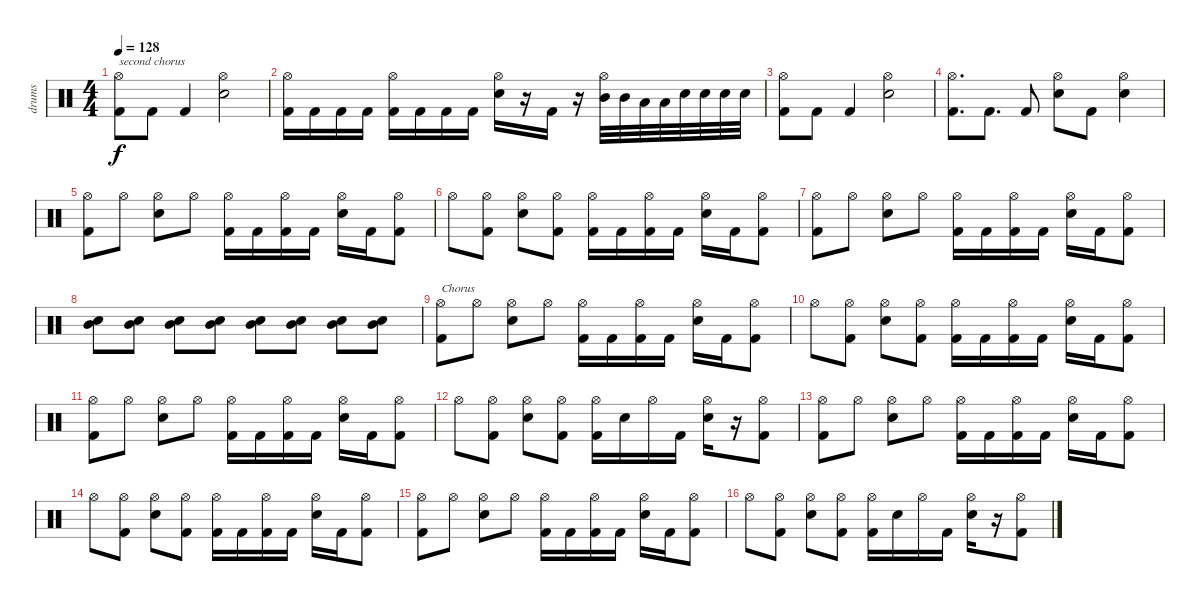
\track ("drums" "drums") {instrument percussion}
\staff {score}
\articulation defaults
\ts (4 4)
\tempo 128
\clef neutral
\ks c
("Hi-Hat (open)" "Kick (hit) 2").8{txt "second chorus" dy f} "Kick (hit) 2".8 "Kick (hit) 2".4 ("Hi-Hat (open)" "Snare (hit) 2").2 |
("Hi-Hat (open)" "Kick (hit) 2").16 "Kick (hit) 2".16 "Kick (hit) 2".16 "Kick (hit) 2".16 ("Hi-Hat (open)" "Kick (hit) 2").16 "Kick (hit) 2".16 "Kick (hit) 2".16 "Kick (hit) 2".16 ("Hi-Hat (open)" "Snare (hit) 2").16 r.16 "Kick (hit) 2".16 r.16 ("Hi-Hat (open)" "Mid Tom (hit)").32 "Mid Tom (hit)".32 "Low Tom (hit)".32 "Low Tom (hit)".32 "Snare (hit) 2".32 "Snare (hit) 2".32 "Snare (hit) 2".32 "Snare (hit) 2".32 |
("Hi-Hat (open)" "Kick (hit) 2").8 "Kick (hit) 2".8 "Kick (hit) 2".4 ("Hi-Hat (open)" "Snare (hit) 2").2 |
("Hi-Hat (open)" "Kick (hit) 2").8{d} "Kick (hit) 2".8{d} "Kick (hit) 2".8 ("Hi-Hat (open)" "Snare (hit) 2").8 "Kick (hit) 2".8 ("Hi-Hat (open)" "Snare (hit) 2").4 |
("Hi-Hat (open)" "Kick (hit) 2").8 "Hi-Hat (open)".8 ("Hi-Hat (open)" "Snare (hit) 2").8 "Hi-Hat (open)".8 ("Hi-Hat (open)" "Kick (hit) 2").16 "Kick (hit) 2".16 ("Hi-Hat (open)" "Kick (hit) 2").16 "Kick (hit) 2".16 ("Hi-Hat (open)" "Snare (hit) 2").16 "Kick (hit) 2".16 ("Hi-Hat (open)" "Kick (hit) 2").8 |
"Hi-Hat (open)".8 ("Hi-Hat (open)" "Kick (hit) 2").8 ("Hi-Hat (open)" "Snare (hit) 2").8 ("Hi-Hat (open)" "Kick (hit) 2").8 ("Hi-Hat (open)" "Kick (hit) 2").16 "Kick (hit) 2".16 ("Hi-Hat (open)" "Kick (hit) 2").16 "Kick (hit) 2".16 ("Hi-Hat (open)" "Snare (hit) 2").16 "Kick (hit) 2".16 ("Hi-Hat (open)" "Kick (hit) 2").8 |
("Hi-Hat (open)" "Kick (hit) 2").8 "Hi-Hat (open)".8 ("Hi-Hat (open)" "Snare (hit) 2").8 "Hi-Hat (open)".8 ("Hi-Hat (open)" "Kick (hit) 2").16 "Kick (hit) 2".16 ("Hi-Hat (open)" "Kick (hit) 2").16 "Kick (hit) 2".16 ("Hi-Hat (open)" "Snare (hit) 2").16 "Kick (hit) 2".16 ("Hi-Hat (open)" "Kick (hit) 2").8 |
("Mid Tom (hit)" "Snare (hit) 2").8 ("Mid Tom (hit)" "Snare (hit) 2").8 ("Mid Tom (hit)" "Snare (hit) 2").8 ("Mid Tom (hit)" "Snare (hit) 2").8 ("Mid Tom (hit)" "Snare (hit) 2").8 ("Mid Tom (hit)" "Snare (hit) 2").8 ("Mid Tom (hit)" "Snare (hit) 2").8 ("Mid Tom (hit)" "Snare (hit) 2").8 |
("Hi-Hat (open)" "Kick (hit) 2").8{txt "Chorus"} "Hi-Hat (open)".8 ("Hi-Hat (open)" "Snare (hit) 2").8 "Hi-Hat (open)".8 ("Hi-Hat (open)" "Kick (hit) 2").16 "Kick (hit) 2".16 ("Hi-Hat (open)" "Kick (hit) 2").16 "Kick (hit) 2".16 ("Hi-Hat (open)" "Snare (hit) 2").16 "Kick (hit) 2".16 ("Hi-Hat (open)" "Kick (hit) 2").8 |
"Hi-Hat (open)".8 ("Hi-Hat (open)" "Kick (hit) 2").8 ("Hi-Hat (open)" "Snare (hit) 2").8 ("Hi-Hat (open)" "Kick (hit) 2").8 ("Hi-Hat (open)" "Kick (hit) 2").16 "Kick (hit) 2".16 ("Hi-Hat (open)" "Kick (hit) 2").16 "Kick (hit) 2".16 ("Hi-Hat (open)" "Snare (hit) 2").16 "Kick (hit) 2".16 ("Hi-Hat (open)" "Kick (hit) 2").8 |
("Hi-Hat (open)" "Kick (hit) 2").8 "Hi-Hat (open)".8 ("Hi-Hat (open)" "Snare (hit) 2").8 "Hi-Hat (open)".8 ("Hi-Hat (open)" "Kick (hit) 2").16 "Kick (hit) 2".16 ("Hi-Hat (open)" "Kick (hit) 2").16 "Kick (hit) 2".16 ("Hi-Hat (open)" "Snare (hit) 2").16 "Kick (hit) 2".16 ("Hi-Hat (open)" "Kick (hit) 2").8 |
"Hi-Hat (open)".8 ("Hi-Hat (open)" "Kick (hit) 2").8 ("Hi-Hat (open)" "Snare (hit) 2").8 ("Hi-Hat (open)" "Kick (hit) 2").8 ("Hi-Hat (open)" "Kick (hit) 2").16 "Snare (hit) 2".16 "Hi-Hat (open)".16 "Kick (hit) 2".16 ("Hi-Hat (open)" "Snare (hit) 2").16 r.16 ("Hi-Hat (open)" "Kick (hit) 2").8 |
("Hi-Hat (open)" "Kick (hit) 2").8 "Hi-Hat (open)".8 ("Hi-Hat (open)" "Snare (hit) 2").8 "Hi-Hat (open)".8 ("Hi-Hat (open)" "Kick (hit) 2").16 "Kick (hit) 2".16 ("Hi-Hat (open)" "Kick (hit) 2").16 "Kick (hit) 2".16 ("Hi-Hat (open)" "Snare (hit) 2").16 "Kick (hit) 2".16 ("Hi-Hat (open)" "Kick (hit) 2").8 |
"Hi-Hat (open)".8 ("Hi-Hat (open)" "Kick (hit) 2").8 ("Hi-Hat (open)" "Snare (hit) 2").8 ("Hi-Hat (open)" "Kick (hit) 2").8 ("Hi-Hat (open)" "Kick (hit) 2").16 "Kick (hit) 2".16 ("Hi-Hat (open)" "Kick (hit) 2").16 "Kick (hit) 2".16 ("Hi-Hat (open)" "Snare (hit) 2").16 "Kick (hit) 2".16 ("Hi-Hat (open)" "Kick (hit) 2").8 |
("Hi-Hat (open)" "Kick (hit) 2").8 "Hi-Hat (open)".8 ("Hi-Hat (open)" "Snare (hit) 2").8 "Hi-Hat (open)".8 ("Hi-Hat (open)" "Kick (hit) 2").16 "Kick (hit) 2".16 ("Hi-Hat (open)" "Kick (hit) 2").16 "Kick (hit) 2".16 ("Hi-Hat (open)" "Snare (hit) 2").16 "Kick (hit) 2".16 ("Hi-Hat (open)" "Kick (hit) 2").8 |
"Hi-Hat (open)".8 ("Hi-Hat (open)" "Kick (hit) 2").8 ("Hi-Hat (open)" "Snare (hit) 2").8 ("Hi-Hat (open)" "Kick (hit) 2").8 ("Hi-Hat (open)" "Kick (hit) 2").16 "Snare (hit) 2".16 "Hi-Hat (open)".16 "Kick (hit) 2".16 ("Hi-Hat (open)" "Snare (hit) 2").16 r.16 ("Hi-Hat (open)" "Kick (hit) 2").8
